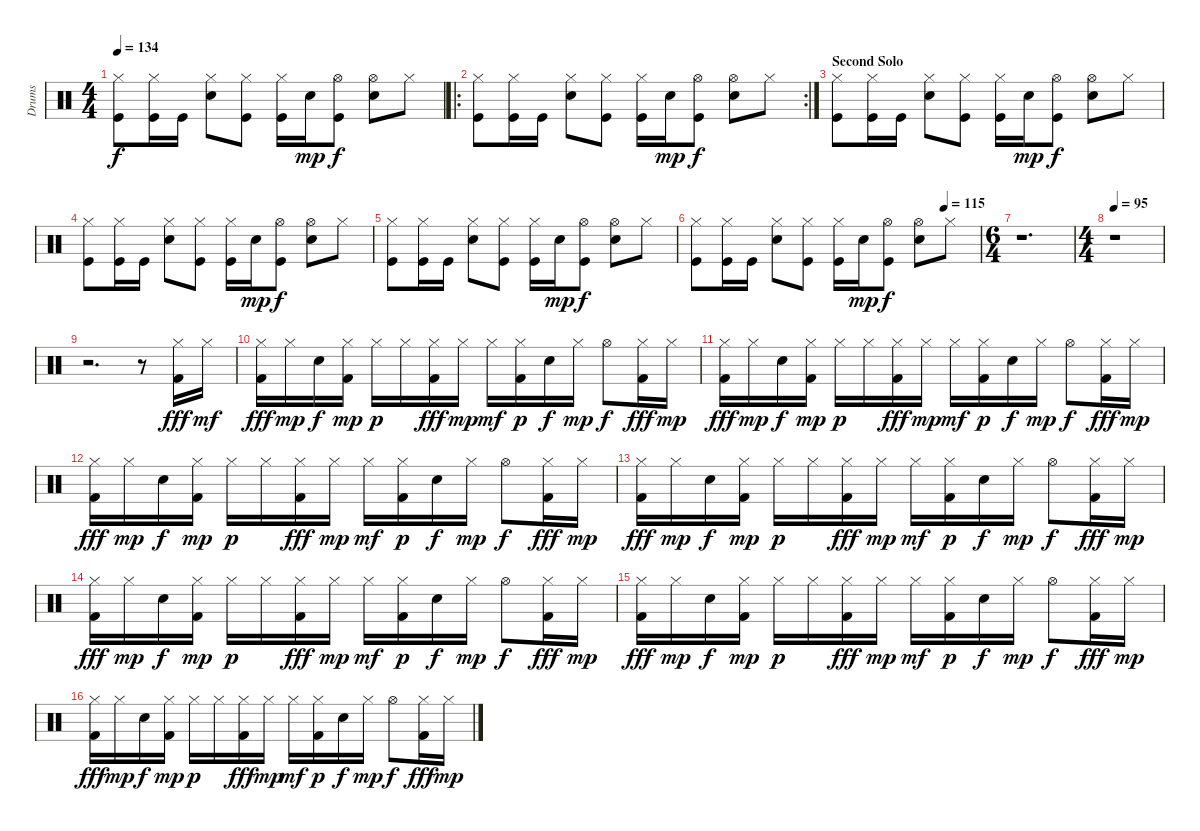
\track ("Drums" "Drums") {instrument percussion}
\staff {score}
\articulation defaults
\ts (4 4)
\tempo 134
\clef neutral
\ks c
("Hi-Hat (closed)" "Kick (hit)").8{dy f} ("Hi-Hat (closed)" "Kick (hit)").16 "Kick (hit)".16 ("Hi-Hat (closed)" "Snare (hit) 2").8 ("Hi-Hat (closed)" "Kick (hit)").8 ("Hi-Hat (closed)" "Kick (hit)").16 "Snare (hit) 2".16{dy mp} ("Hi-Hat (open)" "Kick (hit)").8{dy f} ("Hi-Hat (open)" "Snare (hit) 2").8 "Hi-Hat (closed)".8 |
\ro
\rc 2
("Hi-Hat (closed)" "Kick (hit)").8 ("Hi-Hat (closed)" "Kick (hit)").16 "Kick (hit)".16 ("Hi-Hat (closed)" "Snare (hit) 2").8 ("Hi-Hat (closed)" "Kick (hit)").8 ("Hi-Hat (closed)" "Kick (hit)").16 "Snare (hit) 2".16{dy mp} ("Hi-Hat (open)" "Kick (hit)").8{dy f} ("Hi-Hat (open)" "Snare (hit) 2").8 "Hi-Hat (closed)".8 |
\section ("" "Second Solo")
("Hi-Hat (closed)" "Kick (hit)").8 ("Hi-Hat (closed)" "Kick (hit)").16 "Kick (hit)".16 ("Hi-Hat (closed)" "Snare (hit) 2").8 ("Hi-Hat (closed)" "Kick (hit)").8 ("Hi-Hat (closed)" "Kick (hit)").16 "Snare (hit) 2".16{dy mp} ("Hi-Hat (open)" "Kick (hit)").8{dy f} ("Hi-Hat (open)" "Snare (hit) 2").8 "Hi-Hat (closed)".8 |
("Hi-Hat (closed)" "Kick (hit)").8 ("Hi-Hat (closed)" "Kick (hit)").16 "Kick (hit)".16 ("Hi-Hat (closed)" "Snare (hit) 2").8 ("Hi-Hat (closed)" "Kick (hit)").8 ("Hi-Hat (closed)" "Kick (hit)").16 "Snare (hit) 2".16{dy mp} ("Hi-Hat (open)" "Kick (hit)").8{dy f} ("Hi-Hat (open)" "Snare (hit) 2").8 "Hi-Hat (closed)".8 |
("Hi-Hat (closed)" "Kick (hit)").8{volume 0} ("Hi-Hat (closed)" "Kick (hit)").16 "Kick (hit)".16 ("Hi-Hat (closed)" "Snare (hit) 2").8 ("Hi-Hat (closed)" "Kick (hit)").8 ("Hi-Hat (closed)" "Kick (hit)").16 "Snare (hit) 2".16{dy mp} ("Hi-Hat (open)" "Kick (hit)").8{dy f} ("Hi-Hat (open)" "Snare (hit) 2").8 "Hi-Hat (closed)".8 |
\tempo (115 0.875)
("Hi-Hat (closed)" "Kick (hit)").8 ("Hi-Hat (closed)" "Kick (hit)").16 "Kick (hit)".16 ("Hi-Hat (closed)" "Snare (hit) 2").8 ("Hi-Hat (closed)" "Kick (hit)").8 ("Hi-Hat (closed)" "Kick (hit)").16 "Snare (hit) 2".16{dy mp} ("Hi-Hat (open)" "Kick (hit)").8{dy f} ("Hi-Hat (open)" "Snare (hit) 2").8 "Hi-Hat (closed)".8 |
\ts (6 4)
r.1{d volume 8} |
\ts (4 4)
\tempo 95
r.1{volume 8} |
r.2{d} r.8 ("Hi-Hat (closed)" "Kick (hit) 2").16{dy fff} "Hi-Hat (closed)".16{dy mf} |
("Hi-Hat (closed)" "Kick (hit) 2").16{dy fff} "Hi-Hat (closed)".16{dy mp} "Electric Snare (hit)".16{dy f} ("Hi-Hat (closed)" "Kick (hit) 2").16{dy mp} "Hi-Hat (closed)".16{dy p} "Hi-Hat (closed)".16 ("Hi-Hat (closed)" "Kick (hit) 2").16{dy fff} "Hi-Hat (closed)".16{dy mp} "Hi-Hat (closed)".16{dy mf} ("Hi-Hat (closed)" "Kick (hit) 2").16{dy p} "Electric Snare (hit)".16{dy f} "Hi-Hat (closed)".16{dy mp} "Hi-Hat (open)".8{dy f} ("Hi-Hat (closed)" "Kick (hit) 2").16{dy fff} "Hi-Hat (closed)".16{dy mp} |
("Hi-Hat (closed)" "Kick (hit) 2").16{dy fff} "Hi-Hat (closed)".16{dy mp} "Electric Snare (hit)".16{dy f} ("Hi-Hat (closed)" "Kick (hit) 2").16{dy mp} "Hi-Hat (closed)".16{dy p} "Hi-Hat (closed)".16 ("Hi-Hat (closed)" "Kick (hit) 2").16{dy fff} "Hi-Hat (closed)".16{dy mp} "Hi-Hat (closed)".16{dy mf} ("Hi-Hat (closed)" "Kick (hit) 2").16{dy p} "Electric Snare (hit)".16{dy f} "Hi-Hat (closed)".16{dy mp} "Hi-Hat (open)".8{dy f} ("Hi-Hat (closed)" "Kick (hit) 2").16{dy fff} "Hi-Hat (closed)".16{dy mp} |
("Hi-Hat (closed)" "Kick (hit) 2").16{dy fff} "Hi-Hat (closed)".16{dy mp} "Electric Snare (hit)".16{dy f} ("Hi-Hat (closed)" "Kick (hit) 2").16{dy mp} "Hi-Hat (closed)".16{dy p} "Hi-Hat (closed)".16 ("Hi-Hat (closed)" "Kick (hit) 2").16{dy fff} "Hi-Hat (closed)".16{dy mp} "Hi-Hat (closed)".16{dy mf} ("Hi-Hat (closed)" "Kick (hit) 2").16{dy p} "Electric Snare (hit)".16{dy f} "Hi-Hat (closed)".16{dy mp} "Hi-Hat (open)".8{dy f} ("Hi-Hat (closed)" "Kick (hit) 2").16{dy fff} "Hi-Hat (closed)".16{dy mp} |
("Hi-Hat (closed)" "Kick (hit) 2").16{dy fff} "Hi-Hat (closed)".16{dy mp} "Electric Snare (hit)".16{dy f} ("Hi-Hat (closed)" "Kick (hit) 2").16{dy mp} "Hi-Hat (closed)".16{dy p} "Hi-Hat (closed)".16 ("Hi-Hat (closed)" "Kick (hit) 2").16{dy fff} "Hi-Hat (closed)".16{dy mp} "Hi-Hat (closed)".16{dy mf} ("Hi-Hat (closed)" "Kick (hit) 2").16{dy p} "Electric Snare (hit)".16{dy f} "Hi-Hat (closed)".16{dy mp} "Hi-Hat (open)".8{dy f} ("Hi-Hat (closed)" "Kick (hit) 2").16{dy fff} "Hi-Hat (closed)".16{dy mp} |
("Hi-Hat (closed)" "Kick (hit) 2").16{dy fff} "Hi-Hat (closed)".16{dy mp} "Electric Snare (hit)".16{dy f} ("Hi-Hat (closed)" "Kick (hit) 2").16{dy mp} "Hi-Hat (closed)".16{dy p} "Hi-Hat (closed)".16 ("Hi-Hat (closed)" "Kick (hit) 2").16{dy fff} "Hi-Hat (closed)".16{dy mp} "Hi-Hat (closed)".16{dy mf} ("Hi-Hat (closed)" "Kick (hit) 2").16{dy p} "Electric Snare (hit)".16{dy f} "Hi-Hat (closed)".16{dy mp} "Hi-Hat (open)".8{dy f} ("Hi-Hat (closed)" "Kick (hit) 2").16{dy fff} "Hi-Hat (closed)".16{dy mp} |
("Hi-Hat (closed)" "Kick (hit) 2").16{dy fff} "Hi-Hat (closed)".16{dy mp} "Electric Snare (hit)".16{dy f} ("Hi-Hat (closed)" "Kick (hit) 2").16{dy mp} "Hi-Hat (closed)".16{dy p} "Hi-Hat (closed)".16 ("Hi-Hat (closed)" "Kick (hit) 2").16{dy fff} "Hi-Hat (closed)".16{dy mp} "Hi-Hat (closed)".16{dy mf} ("Hi-Hat (closed)" "Kick (hit) 2").16{dy p} "Electric Snare (hit)".16{dy f} "Hi-Hat (closed)".16{dy mp} "Hi-Hat (open)".8{dy f} ("Hi-Hat (closed)" "Kick (hit) 2").16{dy fff} "Hi-Hat (closed)".16{dy mp} |
("Hi-Hat (closed)" "Kick (hit) 2").16{dy fff} "Hi-Hat (closed)".16{dy mp} "Electric Snare (hit)".16{dy f} ("Hi-Hat (closed)" "Kick (hit) 2").16{dy mp} "Hi-Hat (closed)".16{dy p} "Hi-Hat (closed)".16 ("Hi-Hat (closed)" "Kick (hit) 2").16{dy fff} "Hi-Hat (closed)".16{dy mp} "Hi-Hat (closed)".16{dy mf} ("Hi-Hat (closed)" "Kick (hit) 2").16{dy p} "Electric Snare (hit)".16{dy f} "Hi-Hat (closed)".16{dy mp} "Hi-Hat (open)".8{dy f} ("Hi-Hat (closed)" "Kick (hit) 2").16{dy fff} "Hi-Hat (closed)".16{dy mp}
